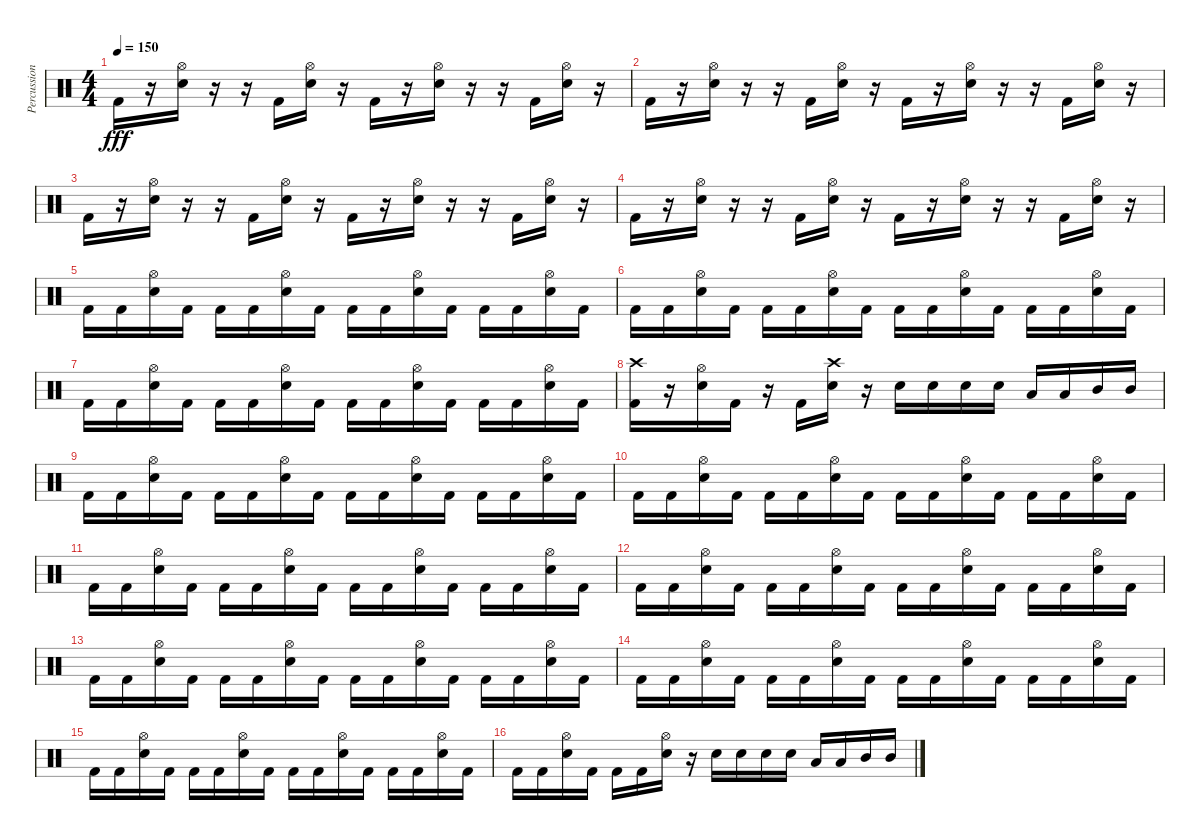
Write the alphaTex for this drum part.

\track ("Percussion" "Percussion") {instrument percussion}
\staff {score}
\articulation defaults
\ts (4 4)
\tempo 150
\clef neutral
\ks c "Kick (hit) 2".16{dy fff}
r.16 ("Snare (hit) 2" "Hi-Hat (open)").16 r.16 r.16 "Kick (hit) 2".16 ("Snare (hit) 2" "Hi-Hat (open)").16 r.16 "Kick (hit) 2".16 r.16 ("Snare (hit) 2" "Hi-Hat (open)").16 r.16 r.16 "Kick (hit) 2".16 ("Snare (hit) 2" "Hi-Hat (open)").16 r.16 |
"Kick (hit) 2".16 r.16 ("Snare (hit) 2" "Hi-Hat (open)").16 r.16 r.16 "Kick (hit) 2".16 ("Snare (hit) 2" "Hi-Hat (open)").16 r.16 "Kick (hit) 2".16 r.16 ("Snare (hit) 2" "Hi-Hat (open)").16 r.16 r.16 "Kick (hit) 2".16 ("Snare (hit) 2" "Hi-Hat (open)").16 r.16 |
"Kick (hit) 2".16 r.16 ("Snare (hit) 2" "Hi-Hat (open)").16 r.16 r.16 "Kick (hit) 2".16 ("Snare (hit) 2" "Hi-Hat (open)").16 r.16 "Kick (hit) 2".16 r.16 ("Snare (hit) 2" "Hi-Hat (open)").16 r.16 r.16 "Kick (hit) 2".16 ("Snare (hit) 2" "Hi-Hat (open)").16 r.16 |
"Kick (hit) 2".16 r.16 ("Snare (hit) 2" "Hi-Hat (open)").16 r.16 r.16 "Kick (hit) 2".16 ("Snare (hit) 2" "Hi-Hat (open)").16 r.16 "Kick (hit) 2".16 r.16 ("Snare (hit) 2" "Hi-Hat (open)").16 r.16 r.16 "Kick (hit) 2".16 ("Snare (hit) 2" "Hi-Hat (open)").16 r.16 |
"Kick (hit) 2".16 "Kick (hit) 2".16 ("Snare (hit) 2" "Hi-Hat (open)").16 "Kick (hit) 2".16 "Kick (hit) 2".16 "Kick (hit) 2".16 ("Snare (hit) 2" "Hi-Hat (open)").16 "Kick (hit) 2".16 "Kick (hit) 2".16 "Kick (hit) 2".16 ("Snare (hit) 2" "Hi-Hat (open)").16 "Kick (hit) 2".16 "Kick (hit) 2".16 "Kick (hit) 2".16 ("Snare (hit) 2" "Hi-Hat (open)").16 "Kick (hit) 2".16 |
"Kick (hit) 2".16 "Kick (hit) 2".16 ("Snare (hit) 2" "Hi-Hat (open)").16 "Kick (hit) 2".16 "Kick (hit) 2".16 "Kick (hit) 2".16 ("Snare (hit) 2" "Hi-Hat (open)").16 "Kick (hit) 2".16 "Kick (hit) 2".16 "Kick (hit) 2".16 ("Snare (hit) 2" "Hi-Hat (open)").16 "Kick (hit) 2".16 "Kick (hit) 2".16 "Kick (hit) 2".16 ("Snare (hit) 2" "Hi-Hat (open)").16 "Kick (hit) 2".16 |
"Kick (hit) 2".16 "Kick (hit) 2".16 ("Snare (hit) 2" "Hi-Hat (open)").16 "Kick (hit) 2".16 "Kick (hit) 2".16 "Kick (hit) 2".16 ("Snare (hit) 2" "Hi-Hat (open)").16 "Kick (hit) 2".16 "Kick (hit) 2".16 "Kick (hit) 2".16 ("Snare (hit) 2" "Hi-Hat (open)").16 "Kick (hit) 2".16 "Kick (hit) 2".16 "Kick (hit) 2".16 ("Snare (hit) 2" "Hi-Hat (open)").16 "Kick (hit) 2".16 |
("Kick (hit) 2" "Crash high (hit)").16 r.16 ("Snare (hit) 2" "Hi-Hat (open)").16 "Kick (hit) 2".16 r.16 "Kick (hit) 2".16 ("Snare (hit) 2" "Crash high (hit)").16 r.16 "Snare (hit) 2".16 "Snare (hit) 2".16 "Snare (hit) 2".16 "Snare (hit) 2".16 "Low Tom (hit)".16 "Low Tom (hit)".16 "Mid Tom (hit)".16 "Mid Tom (hit)".16 |
"Kick (hit) 2".16 "Kick (hit) 2".16 ("Snare (hit) 2" "Hi-Hat (open)").16 "Kick (hit) 2".16 "Kick (hit) 2".16 "Kick (hit) 2".16 ("Snare (hit) 2" "Hi-Hat (open)").16 "Kick (hit) 2".16 "Kick (hit) 2".16 "Kick (hit) 2".16 ("Snare (hit) 2" "Hi-Hat (open)").16 "Kick (hit) 2".16 "Kick (hit) 2".16 "Kick (hit) 2".16 ("Snare (hit) 2" "Hi-Hat (open)").16 "Kick (hit) 2".16 |
"Kick (hit) 2".16 "Kick (hit) 2".16 ("Snare (hit) 2" "Hi-Hat (open)").16 "Kick (hit) 2".16 "Kick (hit) 2".16 "Kick (hit) 2".16 ("Snare (hit) 2" "Hi-Hat (open)").16 "Kick (hit) 2".16 "Kick (hit) 2".16 "Kick (hit) 2".16 ("Snare (hit) 2" "Hi-Hat (open)").16 "Kick (hit) 2".16 "Kick (hit) 2".16 "Kick (hit) 2".16 ("Snare (hit) 2" "Hi-Hat (open)").16 "Kick (hit) 2".16 |
"Kick (hit) 2".16 "Kick (hit) 2".16 ("Snare (hit) 2" "Hi-Hat (open)").16 "Kick (hit) 2".16 "Kick (hit) 2".16 "Kick (hit) 2".16 ("Snare (hit) 2" "Hi-Hat (open)").16 "Kick (hit) 2".16 "Kick (hit) 2".16 "Kick (hit) 2".16 ("Snare (hit) 2" "Hi-Hat (open)").16 "Kick (hit) 2".16 "Kick (hit) 2".16 "Kick (hit) 2".16 ("Snare (hit) 2" "Hi-Hat (open)").16 "Kick (hit) 2".16 |
"Kick (hit) 2".16 "Kick (hit) 2".16 ("Snare (hit) 2" "Hi-Hat (open)").16 "Kick (hit) 2".16 "Kick (hit) 2".16 "Kick (hit) 2".16 ("Snare (hit) 2" "Hi-Hat (open)").16 "Kick (hit) 2".16 "Kick (hit) 2".16 "Kick (hit) 2".16 ("Snare (hit) 2" "Hi-Hat (open)").16 "Kick (hit) 2".16 "Kick (hit) 2".16 "Kick (hit) 2".16 ("Snare (hit) 2" "Hi-Hat (open)").16 "Kick (hit) 2".16 |
"Kick (hit) 2".16 "Kick (hit) 2".16 ("Snare (hit) 2" "Hi-Hat (open)").16 "Kick (hit) 2".16 "Kick (hit) 2".16 "Kick (hit) 2".16 ("Snare (hit) 2" "Hi-Hat (open)").16 "Kick (hit) 2".16 "Kick (hit) 2".16 "Kick (hit) 2".16 ("Snare (hit) 2" "Hi-Hat (open)").16 "Kick (hit) 2".16 "Kick (hit) 2".16 "Kick (hit) 2".16 ("Snare (hit) 2" "Hi-Hat (open)").16 "Kick (hit) 2".16 |
"Kick (hit) 2".16 "Kick (hit) 2".16 ("Snare (hit) 2" "Hi-Hat (open)").16 "Kick (hit) 2".16 "Kick (hit) 2".16 "Kick (hit) 2".16 ("Snare (hit) 2" "Hi-Hat (open)").16 "Kick (hit) 2".16 "Kick (hit) 2".16 "Kick (hit) 2".16 ("Snare (hit) 2" "Hi-Hat (open)").16 "Kick (hit) 2".16 "Kick (hit) 2".16 "Kick (hit) 2".16 ("Snare (hit) 2" "Hi-Hat (open)").16 "Kick (hit) 2".16 |
"Kick (hit) 2".16 "Kick (hit) 2".16 ("Snare (hit) 2" "Hi-Hat (open)").16 "Kick (hit) 2".16 "Kick (hit) 2".16 "Kick (hit) 2".16 ("Snare (hit) 2" "Hi-Hat (open)").16 "Kick (hit) 2".16 "Kick (hit) 2".16 "Kick (hit) 2".16 ("Snare (hit) 2" "Hi-Hat (open)").16 "Kick (hit) 2".16 "Kick (hit) 2".16 "Kick (hit) 2".16 ("Snare (hit) 2" "Hi-Hat (open)").16 "Kick (hit) 2".16 |
"Kick (hit) 2".16 "Kick (hit) 2".16 ("Snare (hit) 2" "Hi-Hat (open)").16 "Kick (hit) 2".16 "Kick (hit) 2".16 "Kick (hit) 2".16 ("Snare (hit) 2" "Hi-Hat (open)").16 r.16 "Snare (hit) 2".16 "Snare (hit) 2".16 "Snare (hit) 2".16 "Snare (hit) 2".16 "Low Tom (hit)".16 "Low Tom (hit)".16 "Mid Tom (hit)".16 "Mid Tom (hit)".16
